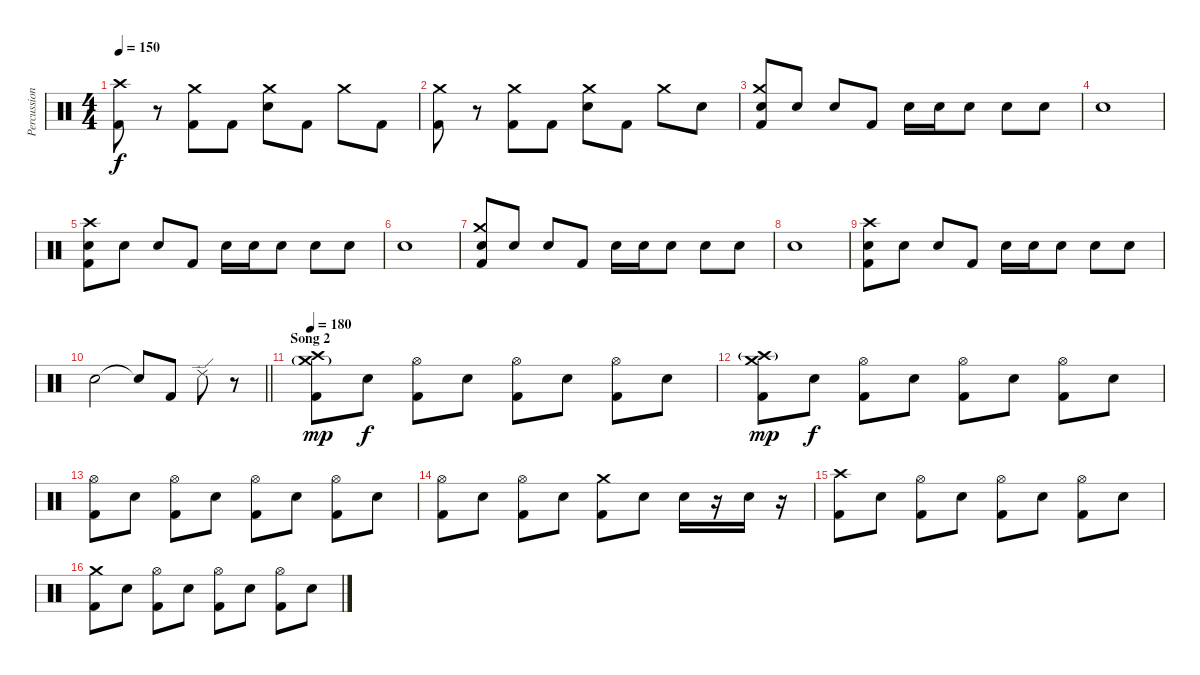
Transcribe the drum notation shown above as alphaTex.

\track ("Percussion" "Percussion") {instrument percussion}
\staff {score}
\articulation defaults
\ts (4 4)
\tempo 150
\clef neutral
\ks c
("Crash high (hit)" "Kick (hit) 2").8{dy f} r.8 ("Crash medium (hit)" "Kick (hit) 2").8 "Kick (hit) 2".8 ("Crash medium (hit)" "Snare (hit) 2").8 "Kick (hit) 2".8 "Crash medium (hit)".8 "Kick (hit) 2".8 |
("Crash medium (hit)" "Kick (hit) 2").8 r.8 ("Crash medium (hit)" "Kick (hit) 2").8 "Kick (hit) 2".8 ("Crash medium (hit)" "Snare (hit) 2").8 "Kick (hit) 2".8 "Crash medium (hit)".8 "Snare (hit) 2".8 |
("Crash medium (hit)" "Snare (hit) 2" "Kick (hit) 2").8 "Snare (hit) 2".8 "Snare (hit) 2".8 "Kick (hit) 2".8 "Snare (hit) 2".16 "Snare (hit) 2".16 "Snare (hit) 2".8 "Snare (hit) 2".8 "Snare (hit) 2".8 |
"Snare (hit) 2".1 |
("Crash high (hit)" "Snare (hit) 2" "Kick (hit) 2").8 "Snare (hit) 2".8 "Snare (hit) 2".8 "Kick (hit) 2".8 "Snare (hit) 2".16 "Snare (hit) 2".16 "Snare (hit) 2".8 "Snare (hit) 2".8 "Snare (hit) 2".8 |
"Snare (hit) 2".1 |
("Crash medium (hit)" "Snare (hit) 2" "Kick (hit) 2").8 "Snare (hit) 2".8 "Snare (hit) 2".8 "Kick (hit) 2".8 "Snare (hit) 2".16 "Snare (hit) 2".16 "Snare (hit) 2".8 "Snare (hit) 2".8 "Snare (hit) 2".8 |
"Snare (hit) 2".1 |
("Crash high (hit)" "Snare (hit) 2" "Kick (hit) 2").8 "Snare (hit) 2".8 "Snare (hit) 2".8 "Kick (hit) 2".8 "Snare (hit) 2".16 "Snare (hit) 2".16 "Snare (hit) 2".8 "Snare (hit) 2".8 "Snare (hit) 2".8 |
\barLineRight lightlight "Snare (hit) 2".2 "Snare (hit)"{t}.8 "Kick (hit) 2".8 "Ride (edge) 2".8
r.8 |
\section ("" "Song 2")
\tempo 180
("Crash medium (hit)"{g} "Crash high (hit)" "Kick (hit) 2").8{dy mp} "Snare (hit) 2".8{dy f} ("Hi-Hat (open)" "Kick (hit) 2").8 "Snare (hit) 2".8 ("Hi-Hat (open)" "Kick (hit) 2").8 "Snare (hit) 2".8 ("Hi-Hat (open)" "Kick (hit) 2").8 "Snare (hit) 2".8 |
("Crash high (hit)"{g} "Crash medium (hit)" "Kick (hit) 2").8{dy mp} "Snare (hit) 2".8{dy f} ("Hi-Hat (open)" "Kick (hit) 2").8 "Snare (hit) 2".8 ("Hi-Hat (open)" "Kick (hit) 2").8 "Snare (hit) 2".8 ("Hi-Hat (open)" "Kick (hit) 2").8 "Snare (hit) 2".8 |
("Hi-Hat (open)" "Kick (hit) 2").8 "Snare (hit) 2".8 ("Hi-Hat (open)" "Kick (hit) 2").8 "Snare (hit) 2".8 ("Hi-Hat (open)" "Kick (hit) 2").8 "Snare (hit) 2".8 ("Hi-Hat (open)" "Kick (hit) 2").8 "Snare (hit) 2".8 |
("Hi-Hat (open)" "Kick (hit) 2").8 "Snare (hit) 2".8 ("Hi-Hat (open)" "Kick (hit) 2").8 "Snare (hit) 2".8 ("Crash medium (hit)" "Kick (hit) 2").8 "Snare (hit) 2".8 "Snare (hit) 2".16 r.16 "Snare (hit) 2".16 r.16 |
("Crash high (hit)" "Kick (hit) 2").8 "Snare (hit) 2".8 ("Hi-Hat (open)" "Kick (hit) 2").8 "Snare (hit) 2".8 ("Hi-Hat (open)" "Kick (hit) 2").8 "Snare (hit) 2".8 ("Hi-Hat (open)" "Kick (hit) 2").8 "Snare (hit) 2".8 |
("Crash medium (hit)" "Kick (hit) 2").8 "Snare (hit) 2".8 ("Hi-Hat (open)" "Kick (hit) 2").8 "Snare (hit) 2".8 ("Hi-Hat (open)" "Kick (hit) 2").8 "Snare (hit) 2".8 ("Hi-Hat (open)" "Kick (hit) 2").8 "Snare (hit) 2".8
